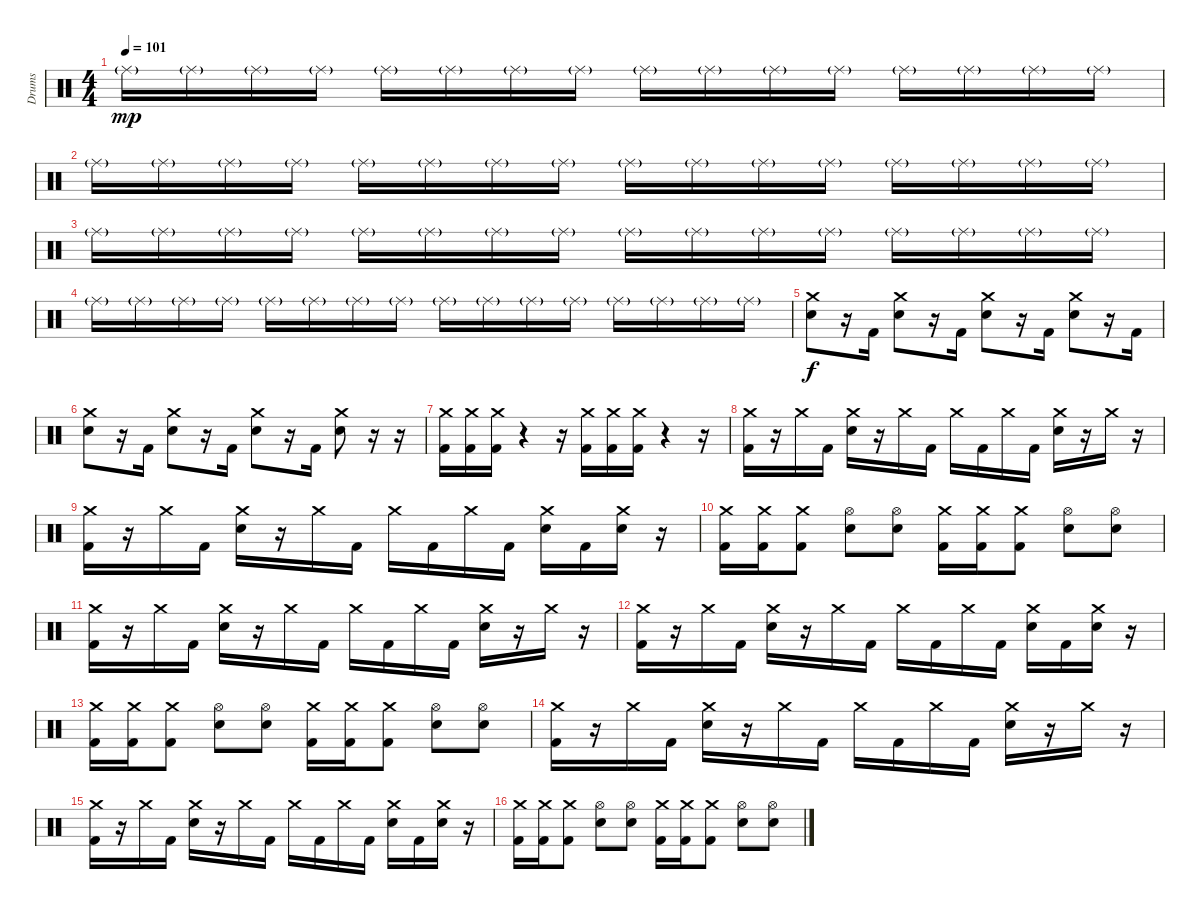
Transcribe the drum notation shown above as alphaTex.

\track ("Drums" "Drums") {instrument percussion}
\staff {score}
\articulation defaults
\ts (4 4)
\tempo 101
\clef neutral
\ks c "Ride (middle)"{g}.16{dy mp} "Ride (middle)"{g}.16 "Ride (middle)"{g}.16 "Ride (middle)"{g}.16 "Ride (middle)"{g}.16 "Ride (middle)"{g}.16 "Ride (middle)"{g}.16 "Ride (middle)"{g}.16 "Ride (middle)"{g}.16 "Ride (middle)"{g}.16 "Ride (middle)"{g}.16 "Ride (middle)"{g}.16 "Ride (middle)"{g}.16 "Ride (middle)"{g}.16 "Ride (middle)"{g}.16 "Ride (middle)"{g}.16
|
"Ride (middle)"{g}.16 "Ride (middle)"{g}.16 "Ride (middle)"{g}.16 "Ride (middle)"{g}.16 "Ride (middle)"{g}.16 "Ride (middle)"{g}.16 "Ride (middle)"{g}.16 "Ride (middle)"{g}.16 "Ride (middle)"{g}.16 "Ride (middle)"{g}.16 "Ride (middle)"{g}.16 "Ride (middle)"{g}.16 "Ride (middle)"{g}.16 "Ride (middle)"{g}.16 "Ride (middle)"{g}.16 "Ride (middle)"{g}.16 |
"Ride (middle)"{g}.16 "Ride (middle)"{g}.16 "Ride (middle)"{g}.16 "Ride (middle)"{g}.16 "Ride (middle)"{g}.16 "Ride (middle)"{g}.16 "Ride (middle)"{g}.16 "Ride (middle)"{g}.16 "Ride (middle)"{g}.16 "Ride (middle)"{g}.16 "Ride (middle)"{g}.16 "Ride (middle)"{g}.16 "Ride (middle)"{g}.16 "Ride (middle)"{g}.16 "Ride (middle)"{g}.16 "Ride (middle)"{g}.16 |
"Ride (middle)"{g}.16 "Ride (middle)"{g}.16 "Ride (middle)"{g}.16 "Ride (middle)"{g}.16 "Ride (middle)"{g}.16 "Ride (middle)"{g}.16 "Ride (middle)"{g}.16 "Ride (middle)"{g}.16 "Ride (middle)"{g}.16 "Ride (middle)"{g}.16 "Ride (middle)"{g}.16 "Ride (middle)"{g}.16 "Ride (middle)"{g}.16 "Ride (middle)"{g}.16 "Ride (middle)"{g}.16 "Ride (middle)"{g}.16 |
("Crash medium (hit)" "Electric Snare (hit)").8{dy f} r.16 "Kick (hit) 2".16 ("Crash medium (hit)" "Electric Snare (hit)").8 r.16 "Kick (hit) 2".16 ("Crash medium (hit)" "Electric Snare (hit)").8 r.16 "Kick (hit) 2".16 ("Crash medium (hit)" "Electric Snare (hit)").8 r.16 "Kick (hit) 2".16 |
("Crash medium (hit)" "Electric Snare (hit)").8 r.16 "Kick (hit) 2".16 ("Crash medium (hit)" "Electric Snare (hit)").8 r.16 "Kick (hit) 2".16 ("Crash medium (hit)" "Electric Snare (hit)").8 r.16 "Kick (hit) 2".16 ("Crash medium (hit)" "Electric Snare (hit)").8 r.16 r.16 |
("Crash medium (hit)" "Kick (hit) 2").16 ("Crash medium (hit)" "Kick (hit) 2").16 ("Crash medium (hit)" "Kick (hit) 2").16 r.4 r.16 ("Crash medium (hit)" "Kick (hit) 2").16 ("Crash medium (hit)" "Kick (hit) 2").16 ("Crash medium (hit)" "Kick (hit) 2").16 r.4 r.16 |
("Crash medium (hit)" "Kick (hit) 2").16 r.16 "Crash medium (hit)".16 "Kick (hit) 2".16 ("Crash medium (hit)" "Electric Snare (hit)").16 r.16 "Crash medium (hit)".16 "Kick (hit) 2".16 "Crash medium (hit)".16 "Kick (hit) 2".16 "Crash medium (hit)".16 "Kick (hit) 2".16 ("Crash medium (hit)" "Electric Snare (hit)").16 r.16 "Crash medium (hit)".16 r.16 |
("Crash medium (hit)" "Kick (hit) 2").16 r.16 "Crash medium (hit)".16 "Kick (hit) 2".16 ("Crash medium (hit)" "Electric Snare (hit)").16 r.16 "Crash medium (hit)".16 "Kick (hit) 2".16 "Crash medium (hit)".16 "Kick (hit) 2".16 "Crash medium (hit)".16 "Kick (hit) 2".16 ("Crash medium (hit)" "Electric Snare (hit)").16 "Kick (hit) 2".16 ("Crash medium (hit)" "Electric Snare (hit)").16 r.16 |
("Crash medium (hit)" "Kick (hit) 2").16 ("Crash medium (hit)" "Kick (hit) 2").16 ("Crash medium (hit)" "Kick (hit) 2").8 ("Hi-Hat (open)" "Electric Snare (hit)").8 ("Hi-Hat (open)" "Electric Snare (hit)").8 ("Crash medium (hit)" "Kick (hit) 2").16 ("Crash medium (hit)" "Kick (hit) 2").16 ("Crash medium (hit)" "Kick (hit) 2").8 ("Hi-Hat (open)" "Electric Snare (hit)").8 ("Hi-Hat (open)" "Electric Snare (hit)").8 |
("Crash medium (hit)" "Kick (hit) 2").16 r.16 "Crash medium (hit)".16 "Kick (hit) 2".16 ("Crash medium (hit)" "Electric Snare (hit)").16 r.16 "Crash medium (hit)".16 "Kick (hit) 2".16 "Crash medium (hit)".16 "Kick (hit) 2".16 "Crash medium (hit)".16 "Kick (hit) 2".16 ("Crash medium (hit)" "Electric Snare (hit)").16 r.16 "Crash medium (hit)".16 r.16 |
("Crash medium (hit)" "Kick (hit) 2").16 r.16 "Crash medium (hit)".16 "Kick (hit) 2".16 ("Crash medium (hit)" "Electric Snare (hit)").16 r.16 "Crash medium (hit)".16 "Kick (hit) 2".16 "Crash medium (hit)".16 "Kick (hit) 2".16 "Crash medium (hit)".16 "Kick (hit) 2".16 ("Crash medium (hit)" "Electric Snare (hit)").16 "Kick (hit) 2".16 ("Crash medium (hit)" "Electric Snare (hit)").16 r.16 |
("Crash medium (hit)" "Kick (hit) 2").16 ("Crash medium (hit)" "Kick (hit) 2").16 ("Crash medium (hit)" "Kick (hit) 2").8 ("Hi-Hat (open)" "Electric Snare (hit)").8 ("Hi-Hat (open)" "Electric Snare (hit)").8 ("Crash medium (hit)" "Kick (hit) 2").16 ("Crash medium (hit)" "Kick (hit) 2").16 ("Crash medium (hit)" "Kick (hit) 2").8 ("Hi-Hat (open)" "Electric Snare (hit)").8 ("Hi-Hat (open)" "Electric Snare (hit)").8 |
("Crash medium (hit)" "Kick (hit) 2").16 r.16 "Crash medium (hit)".16 "Kick (hit) 2".16 ("Crash medium (hit)" "Electric Snare (hit)").16 r.16 "Crash medium (hit)".16 "Kick (hit) 2".16 "Crash medium (hit)".16 "Kick (hit) 2".16 "Crash medium (hit)".16 "Kick (hit) 2".16 ("Crash medium (hit)" "Electric Snare (hit)").16 r.16 "Crash medium (hit)".16 r.16 |
("Crash medium (hit)" "Kick (hit) 2").16 r.16 "Crash medium (hit)".16 "Kick (hit) 2".16 ("Crash medium (hit)" "Electric Snare (hit)").16 r.16 "Crash medium (hit)".16 "Kick (hit) 2".16 "Crash medium (hit)".16 "Kick (hit) 2".16 "Crash medium (hit)".16 "Kick (hit) 2".16 ("Crash medium (hit)" "Electric Snare (hit)").16 "Kick (hit) 2".16 ("Crash medium (hit)" "Electric Snare (hit)").16 r.16 |
("Crash medium (hit)" "Kick (hit) 2").16 ("Crash medium (hit)" "Kick (hit) 2").16 ("Crash medium (hit)" "Kick (hit) 2").8 ("Hi-Hat (open)" "Electric Snare (hit)").8 ("Hi-Hat (open)" "Electric Snare (hit)").8 ("Crash medium (hit)" "Kick (hit) 2").16 ("Crash medium (hit)" "Kick (hit) 2").16 ("Crash medium (hit)" "Kick (hit) 2").8 ("Hi-Hat (open)" "Electric Snare (hit)").8 ("Hi-Hat (open)" "Electric Snare (hit)").8
